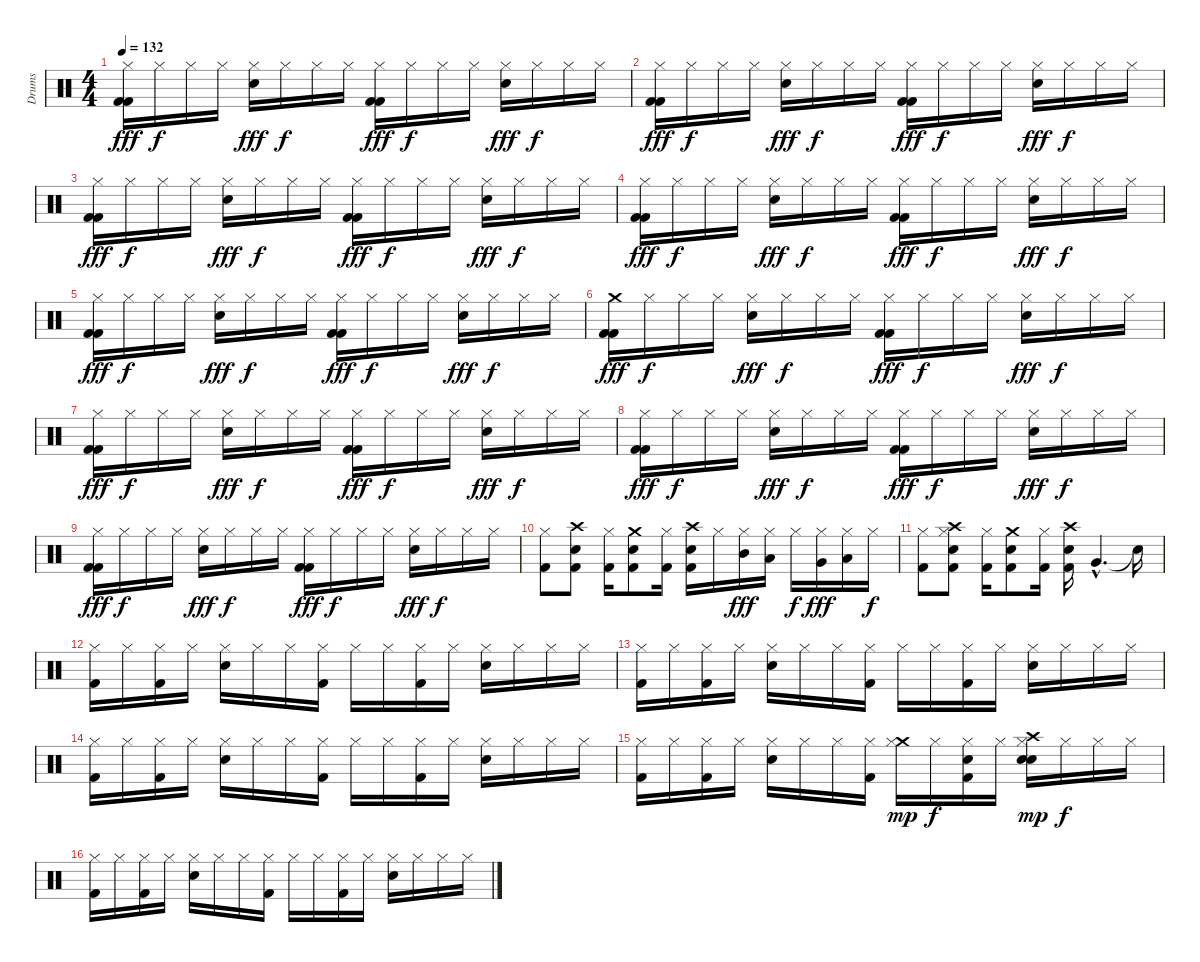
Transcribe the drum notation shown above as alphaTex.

\track ("Drums" "Drums") {instrument percussion}
\staff {score}
\articulation defaults
\ts (4 4)
\tempo 132
\clef neutral
\ks c
("Kick (hit) 2" "Kick (hit) 2" "Hi-Hat (closed)").16{dy fff} "Hi-Hat (closed)".16{dy f} "Hi-Hat (closed)".16 "Hi-Hat (closed)".16 ("Hi-Hat (closed)" "Snare (hit) 2").16{dy fff} "Hi-Hat (closed)".16{dy f} "Hi-Hat (closed)".16 "Hi-Hat (closed)".16 ("Kick (hit) 2" "Kick (hit) 2" "Hi-Hat (closed)").16{dy fff} "Hi-Hat (closed)".16{dy f} "Hi-Hat (closed)".16 "Hi-Hat (closed)".16 ("Hi-Hat (closed)" "Snare (hit) 2").16{dy fff} "Hi-Hat (closed)".16{dy f} "Hi-Hat (closed)".16 "Hi-Hat (closed)".16 |
("Kick (hit) 2" "Kick (hit) 2" "Hi-Hat (closed)").16{dy fff} "Hi-Hat (closed)".16{dy f} "Hi-Hat (closed)".16 "Hi-Hat (closed)".16 ("Hi-Hat (closed)" "Snare (hit) 2").16{dy fff} "Hi-Hat (closed)".16{dy f} "Hi-Hat (closed)".16 "Hi-Hat (closed)".16 ("Kick (hit) 2" "Kick (hit) 2" "Hi-Hat (closed)").16{dy fff} "Hi-Hat (closed)".16{dy f} "Hi-Hat (closed)".16 "Hi-Hat (closed)".16 ("Hi-Hat (closed)" "Snare (hit) 2").16{dy fff} "Hi-Hat (closed)".16{dy f} "Hi-Hat (closed)".16 "Hi-Hat (closed)".16 |
("Kick (hit) 2" "Kick (hit) 2" "Hi-Hat (closed)").16{dy fff} "Hi-Hat (closed)".16{dy f} "Hi-Hat (closed)".16 "Hi-Hat (closed)".16 ("Hi-Hat (closed)" "Snare (hit) 2").16{dy fff} "Hi-Hat (closed)".16{dy f} "Hi-Hat (closed)".16 "Hi-Hat (closed)".16 ("Kick (hit) 2" "Kick (hit) 2" "Hi-Hat (closed)").16{dy fff} "Hi-Hat (closed)".16{dy f} "Hi-Hat (closed)".16 "Hi-Hat (closed)".16 ("Hi-Hat (closed)" "Snare (hit) 2").16{dy fff} "Hi-Hat (closed)".16{dy f} "Hi-Hat (closed)".16 "Hi-Hat (closed)".16 |
("Kick (hit) 2" "Kick (hit) 2" "Hi-Hat (closed)").16{dy fff} "Hi-Hat (closed)".16{dy f} "Hi-Hat (closed)".16 "Hi-Hat (closed)".16 ("Hi-Hat (closed)" "Snare (hit) 2").16{dy fff} "Hi-Hat (closed)".16{dy f} "Hi-Hat (closed)".16 "Hi-Hat (closed)".16 ("Kick (hit) 2" "Kick (hit) 2" "Hi-Hat (closed)").16{dy fff} "Hi-Hat (closed)".16{dy f} "Hi-Hat (closed)".16 "Hi-Hat (closed)".16 ("Hi-Hat (closed)" "Snare (hit) 2").16{dy fff} "Hi-Hat (closed)".16{dy f} "Hi-Hat (closed)".16 "Hi-Hat (closed)".16 |
("Kick (hit) 2" "Kick (hit) 2" "Hi-Hat (closed)").16{dy fff} "Hi-Hat (closed)".16{dy f} "Hi-Hat (closed)".16 "Hi-Hat (closed)".16 ("Hi-Hat (closed)" "Snare (hit) 2").16{dy fff} "Hi-Hat (closed)".16{dy f} "Hi-Hat (closed)".16 "Hi-Hat (closed)".16 ("Kick (hit) 2" "Kick (hit) 2" "Hi-Hat (closed)").16{dy fff} "Hi-Hat (closed)".16{dy f} "Hi-Hat (closed)".16 "Hi-Hat (closed)".16 ("Hi-Hat (closed)" "Snare (hit) 2").16{dy fff} "Hi-Hat (closed)".16{dy f} "Hi-Hat (closed)".16 "Hi-Hat (closed)".16 |
("Kick (hit) 2" "Kick (hit) 2" "Crash medium (hit)").16{dy fff} "Hi-Hat (closed)".16{dy f} "Hi-Hat (closed)".16 "Hi-Hat (closed)".16 ("Hi-Hat (closed)" "Snare (hit) 2").16{dy fff} "Hi-Hat (closed)".16{dy f} "Hi-Hat (closed)".16 "Hi-Hat (closed)".16 ("Kick (hit) 2" "Kick (hit) 2" "Hi-Hat (closed)").16{dy fff} "Hi-Hat (closed)".16{dy f} "Hi-Hat (closed)".16 "Hi-Hat (closed)".16 ("Hi-Hat (closed)" "Snare (hit) 2").16{dy fff} "Hi-Hat (closed)".16{dy f} "Hi-Hat (closed)".16 "Hi-Hat (closed)".16 |
("Kick (hit) 2" "Kick (hit) 2" "Hi-Hat (closed)").16{dy fff} "Hi-Hat (closed)".16{dy f} "Hi-Hat (closed)".16 "Hi-Hat (closed)".16 ("Hi-Hat (closed)" "Snare (hit) 2").16{dy fff} "Hi-Hat (closed)".16{dy f} "Hi-Hat (closed)".16 "Hi-Hat (closed)".16 ("Kick (hit) 2" "Kick (hit) 2" "Hi-Hat (closed)").16{dy fff} "Hi-Hat (closed)".16{dy f} "Hi-Hat (closed)".16 "Hi-Hat (closed)".16 ("Hi-Hat (closed)" "Snare (hit) 2").16{dy fff} "Hi-Hat (closed)".16{dy f} "Hi-Hat (closed)".16 "Hi-Hat (closed)".16 |
("Kick (hit) 2" "Kick (hit) 2" "Hi-Hat (closed)").16{dy fff} "Hi-Hat (closed)".16{dy f} "Hi-Hat (closed)".16 "Hi-Hat (closed)".16 ("Hi-Hat (closed)" "Snare (hit) 2").16{dy fff} "Hi-Hat (closed)".16{dy f} "Hi-Hat (closed)".16 "Hi-Hat (closed)".16 ("Kick (hit) 2" "Kick (hit) 2" "Hi-Hat (closed)").16{dy fff} "Hi-Hat (closed)".16{dy f} "Hi-Hat (closed)".16 "Hi-Hat (closed)".16 ("Hi-Hat (closed)" "Snare (hit) 2").16{dy fff} "Hi-Hat (closed)".16{dy f} "Hi-Hat (closed)".16 "Hi-Hat (closed)".16 |
("Kick (hit) 2" "Kick (hit) 2" "Hi-Hat (closed)").16{dy fff} "Hi-Hat (closed)".16{dy f} "Hi-Hat (closed)".16 "Hi-Hat (closed)".16 ("Hi-Hat (closed)" "Snare (hit) 2").16{dy fff} "Hi-Hat (closed)".16{dy f} "Hi-Hat (closed)".16 "Hi-Hat (closed)".16 ("Kick (hit) 2" "Kick (hit) 2" "Hi-Hat (closed)").16{dy fff} "Hi-Hat (closed)".16{dy f} "Hi-Hat (closed)".16 "Hi-Hat (closed)".16 ("Hi-Hat (closed)" "Snare (hit) 2").16{dy fff} "Hi-Hat (closed)".16{dy f} "Hi-Hat (closed)".16 "Hi-Hat (closed)".16 |
("Kick (hit) 2" "Hi-Hat (closed)").8 ("Kick (hit) 2" "Crash high (hit)" "Snare (hit) 2").8 ("Kick (hit) 2" "Hi-Hat (closed)").16 ("Kick (hit) 2" "Crash medium (hit)" "Snare (hit) 2").8 ("Kick (hit) 2" "Hi-Hat (closed)").16 ("Kick (hit) 2" "Crash high (hit)" "Snare (hit) 2").16 "Hi-Hat (closed)".16 ("Mid Tom (hit)" "Hi-Hat (closed)").16{dy fff} ("Low Tom (hit)" "Hi-Hat (closed)").16 "Hi-Hat (closed)".16{dy f} ("Very Low Tom (hit)" "Hi-Hat (closed)").16{dy fff} ("Low Floor Tom (hit)" "Hi-Hat (closed)").16 "Hi-Hat (closed)".16{dy f} |
("Kick (hit) 2" "Hi-Hat (closed)").8 ("Kick (hit) 2" "Crash high (hit)" "Hi-Hat (closed)" "Snare (hit) 2").8 ("Kick (hit) 2" "Hi-Hat (closed)").16 ("Kick (hit) 2" "Crash medium (hit)" "Snare (hit) 2").8 ("Kick (hit) 2" "Hi-Hat (closed)").16 ("Kick (hit) 2" "Crash high (hit)" "Snare (hit) 2").16 "Very Low Tom (hit)"{hac}.4{d} "Snare (hit)"{t}.16 |
("Kick (hit) 2" "Hi-Hat (closed)").16 "Hi-Hat (closed)".16 ("Kick (hit) 2" "Hi-Hat (closed)").16 "Hi-Hat (closed)".16 ("Hi-Hat (closed)" "Snare (hit) 2").16 "Hi-Hat (closed)".16 "Hi-Hat (closed)".16 ("Kick (hit) 2" "Hi-Hat (closed)").16 "Hi-Hat (closed)".16 "Hi-Hat (closed)".16 ("Kick (hit) 2" "Hi-Hat (closed)").16 "Hi-Hat (closed)".16 ("Hi-Hat (closed)" "Snare (hit) 2").16 "Hi-Hat (closed)".16 "Hi-Hat (closed)".16 "Hi-Hat (closed)".16 |
("Kick (hit) 2" "Hi-Hat (closed)").16 "Hi-Hat (closed)".16 ("Kick (hit) 2" "Hi-Hat (closed)").16 "Hi-Hat (closed)".16 ("Hi-Hat (closed)" "Snare (hit) 2").16 "Hi-Hat (closed)".16 "Hi-Hat (closed)".16 ("Kick (hit) 2" "Hi-Hat (closed)").16 "Hi-Hat (closed)".16 "Hi-Hat (closed)".16 ("Kick (hit) 2" "Hi-Hat (closed)").16 "Hi-Hat (closed)".16 ("Hi-Hat (closed)" "Snare (hit) 2").16 "Hi-Hat (closed)".16 "Hi-Hat (closed)".16 "Hi-Hat (closed)".16 |
("Kick (hit) 2" "Hi-Hat (closed)").16 "Hi-Hat (closed)".16 ("Kick (hit) 2" "Hi-Hat (closed)").16 "Hi-Hat (closed)".16 ("Hi-Hat (closed)" "Snare (hit) 2").16 "Hi-Hat (closed)".16 "Hi-Hat (closed)".16 ("Kick (hit) 2" "Hi-Hat (closed)").16 "Hi-Hat (closed)".16 "Hi-Hat (closed)".16 ("Kick (hit) 2" "Hi-Hat (closed)").16 "Hi-Hat (closed)".16 ("Hi-Hat (closed)" "Snare (hit) 2").16 "Hi-Hat (closed)".16 "Hi-Hat (closed)".16 "Hi-Hat (closed)".16 |
("Kick (hit) 2" "Hi-Hat (closed)").16 "Hi-Hat (closed)".16 ("Kick (hit) 2" "Hi-Hat (closed)").16 "Hi-Hat (closed)".16 ("Hi-Hat (closed)" "Snare (hit) 2").16 "Hi-Hat (closed)".16 "Hi-Hat (closed)".16 ("Kick (hit) 2" "Hi-Hat (closed)").16 ("Crash medium (hit)" "Hi-Hat (closed)").16{dy mp} "Hi-Hat (closed)".16{dy f} ("Kick (hit) 2" "Hi-Hat (closed)" "Hand Clap (hit)").16 "Hi-Hat (closed)".16 ("Crash high (hit)" "Hi-Hat (closed)" "Snare (hit) 2" "Hand Clap (hit)").16{dy mp} "Hi-Hat (closed)".16{dy f} "Hi-Hat (closed)".16 "Hi-Hat (closed)".16 |
("Kick (hit) 2" "Hi-Hat (closed)").16 "Hi-Hat (closed)".16 ("Kick (hit) 2" "Hi-Hat (closed)").16 "Hi-Hat (closed)".16 ("Hi-Hat (closed)" "Snare (hit) 2").16 "Hi-Hat (closed)".16 "Hi-Hat (closed)".16 ("Kick (hit) 2" "Hi-Hat (closed)").16 "Hi-Hat (closed)".16 "Hi-Hat (closed)".16 ("Kick (hit) 2" "Hi-Hat (closed)").16 "Hi-Hat (closed)".16 ("Hi-Hat (closed)" "Snare (hit) 2").16 "Hi-Hat (closed)".16 "Hi-Hat (closed)".16 "Hi-Hat (closed)".16
